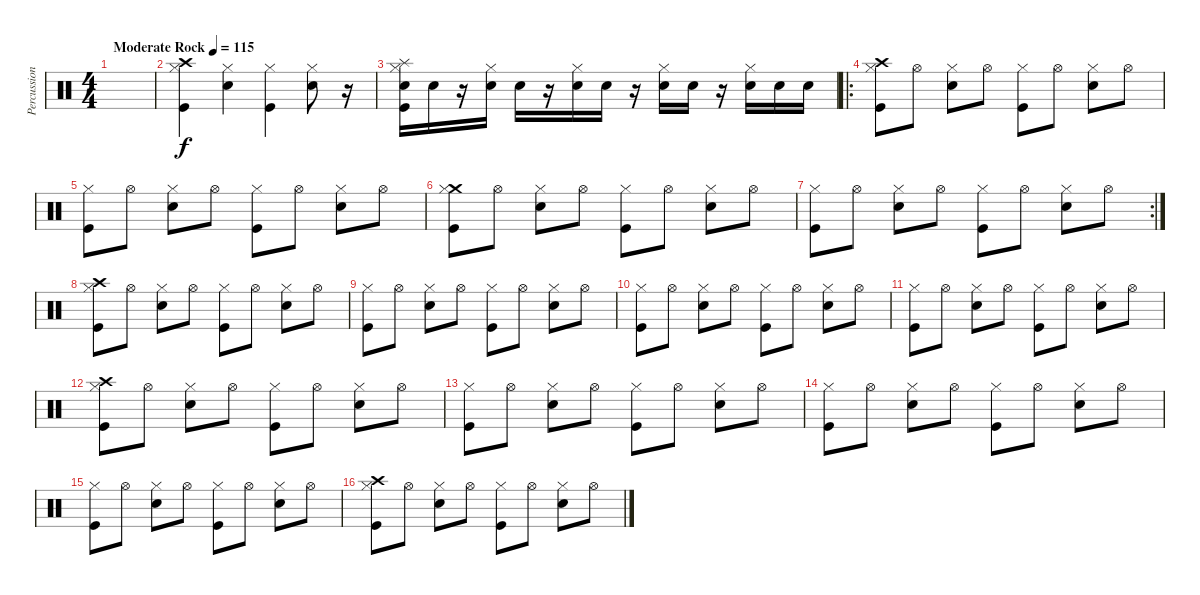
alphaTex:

\track ("Percussion" "Percussion") {instrument percussion}
\staff {score}
\articulation defaults
\ts (4 4)
\tempo (115 "Moderate Rock")
\clef neutral
\ks c
|
("Crash high (hit)" "Hi-Hat (closed)" "Kick (hit)").4 ("Hi-Hat (closed)" "Snare (hit) 2").4 ("Hi-Hat (closed)" "Kick (hit)").4 ("Hi-Hat (closed)" "Snare (hit) 2").8 r.16 |
("Splash (hit)" "Hi-Hat (closed)" "Snare (hit) 2" "Kick (hit)").16 "Snare (hit) 2".16 r.16 ("Hi-Hat (closed)" "Snare (hit) 2").16 "Snare (hit) 2".16 r.16 ("Hi-Hat (closed)" "Snare (hit) 2").16 "Snare (hit) 2".16 r.16 ("Hi-Hat (closed)" "Snare (hit) 2").16 "Snare (hit) 2".16 r.16 ("Hi-Hat (closed)" "Snare (hit) 2").16 "Snare (hit) 2".16 "Snare (hit) 2".16 |
\ro
("Crash high (hit)" "Hi-Hat (closed)" "Kick (hit)").8 "Hi-Hat (open)".8 ("Hi-Hat (closed)" "Snare (hit) 2").8 "Hi-Hat (open)".8 ("Hi-Hat (closed)" "Kick (hit)").8 "Hi-Hat (open)".8 ("Hi-Hat (closed)" "Snare (hit) 2").8 "Hi-Hat (open)".8 |
("Hi-Hat (closed)" "Kick (hit)").8 "Hi-Hat (open)".8 ("Hi-Hat (closed)" "Snare (hit) 2").8 "Hi-Hat (open)".8 ("Hi-Hat (closed)" "Kick (hit)").8 "Hi-Hat (open)".8 ("Hi-Hat (closed)" "Snare (hit) 2").8 "Hi-Hat (open)".8 |
("Crash medium (hit)" "Hi-Hat (closed)" "Kick (hit)").8 "Hi-Hat (open)".8 ("Hi-Hat (closed)" "Snare (hit) 2").8 "Hi-Hat (open)".8 ("Hi-Hat (closed)" "Kick (hit)").8 "Hi-Hat (open)".8 ("Hi-Hat (closed)" "Snare (hit) 2").8 "Hi-Hat (open)".8 |
\rc 2
("Hi-Hat (closed)" "Kick (hit)").8 "Hi-Hat (open)".8 ("Hi-Hat (closed)" "Snare (hit) 2").8 "Hi-Hat (open)".8 ("Hi-Hat (closed)" "Kick (hit)").8 "Hi-Hat (open)".8 ("Hi-Hat (closed)" "Snare (hit) 2").8 "Hi-Hat (open)".8 |
("Crash high (hit)" "Hi-Hat (closed)" "Kick (hit)").8 "Hi-Hat (open)".8 ("Hi-Hat (closed)" "Snare (hit) 2").8 "Hi-Hat (open)".8 ("Hi-Hat (closed)" "Kick (hit)").8 "Hi-Hat (open)".8 ("Hi-Hat (closed)" "Snare (hit) 2").8 "Hi-Hat (open)".8 |
("Hi-Hat (closed)" "Kick (hit)").8 "Hi-Hat (open)".8 ("Hi-Hat (closed)" "Snare (hit) 2").8 "Hi-Hat (open)".8 ("Hi-Hat (closed)" "Kick (hit)").8 "Hi-Hat (open)".8 ("Hi-Hat (closed)" "Snare (hit) 2").8 "Hi-Hat (open)".8 |
("Hi-Hat (closed)" "Kick (hit)").8 "Hi-Hat (open)".8 ("Hi-Hat (closed)" "Snare (hit) 2").8 "Hi-Hat (open)".8 ("Hi-Hat (closed)" "Kick (hit)").8 "Hi-Hat (open)".8 ("Hi-Hat (closed)" "Snare (hit) 2").8 "Hi-Hat (open)".8 |
("Hi-Hat (closed)" "Kick (hit)").8 "Hi-Hat (open)".8 ("Hi-Hat (closed)" "Snare (hit) 2").8 "Hi-Hat (open)".8 ("Hi-Hat (closed)" "Kick (hit)").8 "Hi-Hat (open)".8 ("Hi-Hat (closed)" "Snare (hit) 2").8 "Hi-Hat (open)".8 |
("Crash high (hit)" "Hi-Hat (closed)" "Kick (hit)").8 "Hi-Hat (open)".8 ("Hi-Hat (closed)" "Snare (hit) 2").8 "Hi-Hat (open)".8 ("Hi-Hat (closed)" "Kick (hit)").8 "Hi-Hat (open)".8 ("Hi-Hat (closed)" "Snare (hit) 2").8 "Hi-Hat (open)".8 |
("Hi-Hat (closed)" "Kick (hit)").8 "Hi-Hat (open)".8 ("Hi-Hat (closed)" "Snare (hit) 2").8 "Hi-Hat (open)".8 ("Hi-Hat (closed)" "Kick (hit)").8 "Hi-Hat (open)".8 ("Hi-Hat (closed)" "Snare (hit) 2").8 "Hi-Hat (open)".8 |
("Hi-Hat (closed)" "Kick (hit)").8 "Hi-Hat (open)".8 ("Hi-Hat (closed)" "Snare (hit) 2").8 "Hi-Hat (open)".8 ("Hi-Hat (closed)" "Kick (hit)").8 "Hi-Hat (open)".8 ("Hi-Hat (closed)" "Snare (hit) 2").8 "Hi-Hat (open)".8 |
("Hi-Hat (closed)" "Kick (hit)").8 "Hi-Hat (open)".8 ("Hi-Hat (closed)" "Snare (hit) 2").8 "Hi-Hat (open)".8 ("Hi-Hat (closed)" "Kick (hit)").8 "Hi-Hat (open)".8 ("Hi-Hat (closed)" "Snare (hit) 2").8 "Hi-Hat (open)".8 |
("Crash high (hit)" "Hi-Hat (closed)" "Kick (hit)").8 "Hi-Hat (open)".8 ("Hi-Hat (closed)" "Snare (hit) 2").8 "Hi-Hat (open)".8 ("Hi-Hat (closed)" "Kick (hit)").8 "Hi-Hat (open)".8 ("Hi-Hat (closed)" "Snare (hit) 2").8 "Hi-Hat (open)".8
